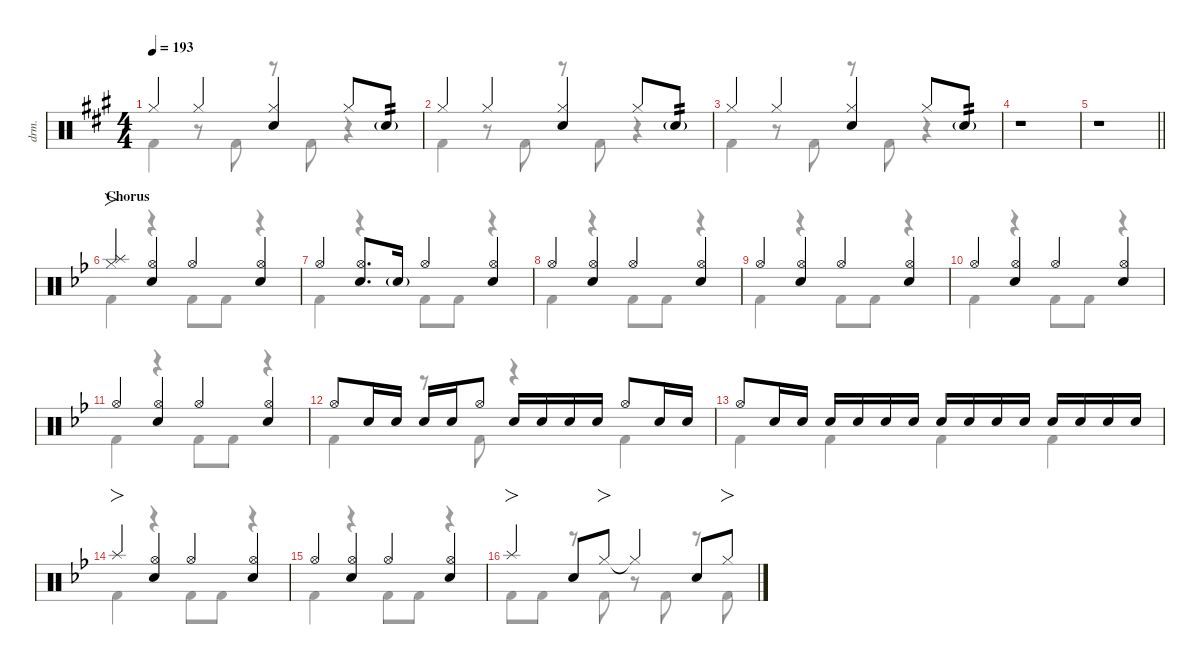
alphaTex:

\defaultSystemsLayout 4
\hideDynamics
\bracketExtendMode nobrackets
\otherSystemsTrackNameOrientation horizontal
\track ("伊地知虹夏" "drm.") {instrument percussion}
\staff {score}
\articulation defaults
\voice
\ts (4 4)
\tempo 193
\clef neutral
\ks a "Hi-Hat (closed)"{acc forcenatural}.4{dy mf beam Up} "Hi-Hat (closed)"{acc forcenatural}.4{beam Up}
("Hi-Hat (closed)"{acc forcenatural} "Snare (hit) 2"{acc forcenatural}).4{beam Up} "Hi-Hat (closed)"{acc forcenatural}.8{beam Up} "Snare (hit) 2"{g acc forcenatural}.8{tp 2 beam Up} |
"Hi-Hat (closed)"{acc forcenatural}.4{beam Up} "Hi-Hat (closed)"{acc forcenatural}.4{beam Up} ("Hi-Hat (closed)"{acc forcenatural} "Snare (hit) 2"{acc forcenatural}).4{beam Up} "Hi-Hat (closed)"{acc forcenatural}.8{beam Up} "Snare (hit) 2"{g acc forcenatural}.8{tp 2 beam Up} |
"Hi-Hat (closed)"{acc forcenatural}.4{beam Up} "Hi-Hat (closed)"{acc forcenatural}.4{beam Up} ("Hi-Hat (closed)"{acc forcenatural} "Snare (hit) 2"{acc forcenatural}).4{beam Up} "Hi-Hat (closed)"{acc forcenatural}.8{beam Up} "Snare (hit) 2"{g acc forcenatural}.8{tp 2 beam Up} |
r.1{beam Up} |
\barLineRight lightlight
r.1{beam Up} |
\section ("" "Chorus")
\ks bb
("Hi-Hat (closed)"{acc forcenatural} "Splash (hit)"{acc forcenatural}).4{fo beam Up} ("Hi-Hat (open)"{acc forcenatural} "Snare (hit) 2"{acc forcenatural}).4{beam Up} "Hi-Hat (open)"{acc forcenatural}.4{beam Up} ("Hi-Hat (open)"{acc forcenatural} "Snare (hit) 2"{acc forcenatural}).4{beam Up} |
"Hi-Hat (open)"{acc forcenatural}.4{beam Up} ("Hi-Hat (open)"{acc forcenatural} "Snare (hit) 2"{acc forcenatural}).8{d beam Up} "Snare (hit) 2"{g acc forcenatural}.16{beam Up} "Hi-Hat (open)"{acc forcenatural}.4{beam Up} ("Hi-Hat (open)"{acc forcenatural} "Snare (hit) 2"{acc forcenatural}).4{beam Up} |
"Hi-Hat (open)"{acc forcenatural}.4{beam Up} ("Hi-Hat (open)"{acc forcenatural} "Snare (hit) 2"{acc forcenatural}).4{beam Up} "Hi-Hat (open)"{acc forcenatural}.4{beam Up} ("Hi-Hat (open)"{acc forcenatural} "Snare (hit) 2"{acc forcenatural}).4{beam Up} |
"Hi-Hat (open)"{acc forcenatural}.4{beam Up} ("Hi-Hat (open)"{acc forcenatural} "Snare (hit) 2"{acc forcenatural}).4{beam Up} "Hi-Hat (open)"{acc forcenatural}.4{beam Up} ("Hi-Hat (open)"{acc forcenatural} "Snare (hit) 2"{acc forcenatural}).4{beam Up} |
"Hi-Hat (open)"{acc forcenatural}.4{beam Up} ("Hi-Hat (open)"{acc forcenatural} "Snare (hit) 2"{acc forcenatural}).4{beam Up} "Hi-Hat (open)"{acc forcenatural}.4{beam Up} ("Hi-Hat (open)"{acc forcenatural} "Snare (hit) 2"{acc forcenatural}).4{beam Up} |
"Hi-Hat (open)"{acc forcenatural}.4{beam Up} ("Hi-Hat (open)"{acc forcenatural} "Snare (hit) 2"{acc forcenatural}).4{beam Up} "Hi-Hat (open)"{acc forcenatural}.4{beam Up} ("Hi-Hat (open)"{acc forcenatural} "Snare (hit) 2"{acc forcenatural}).4{beam Up} |
"Hi-Hat (open)"{acc forcenatural}.8{beam Up} "Snare (hit) 2"{acc forcenatural}.16{beam Up} "Snare (hit) 2"{acc forcenatural}.16{beam Up} "Snare (hit) 2"{acc forcenatural}.16{beam Up} "Snare (hit) 2"{acc forcenatural}.16{beam Up} "Hi-Hat (open)"{acc forcenatural}.8{beam Up} "Snare (hit) 2"{acc forcenatural}.16{beam Up} "Snare (hit) 2"{acc forcenatural}.16{beam Up} "Snare (hit) 2"{acc forcenatural}.16{beam Up} "Snare (hit) 2"{acc forcenatural}.16{beam Up} "Hi-Hat (open)"{acc forcenatural}.8{beam Up} "Snare (hit) 2"{acc forcenatural}.16{beam Up} "Snare (hit) 2"{acc forcenatural}.16{beam Up} |
"Hi-Hat (open)"{acc forcenatural}.8{beam Up} "Snare (hit) 2"{acc forcenatural}.16{beam Up} "Snare (hit) 2"{acc forcenatural}.16{beam Up} "Snare (hit) 2"{acc forcenatural}.16{beam Up} "Snare (hit) 2"{acc forcenatural}.16{beam Up} "Snare (hit) 2"{acc forcenatural}.16{beam Up} "Snare (hit) 2"{acc forcenatural}.16{beam Up} "Snare (hit) 2"{acc forcenatural}.16{beam Up} "Snare (hit) 2"{acc forcenatural}.16{beam Up} "Snare (hit) 2"{acc forcenatural}.16{beam Up} "Snare (hit) 2"{acc forcenatural}.16{beam Up} "Snare (hit) 2"{acc forcenatural}.16{beam Up} "Snare (hit) 2"{acc forcenatural}.16{beam Up} "Snare (hit) 2"{acc forcenatural}.16{beam Up} "Snare (hit) 2"{acc forcenatural}.16{beam Up} |
"Splash (hit)"{acc forcenatural}.4{fo beam Up} ("Hi-Hat (open)"{acc forcenatural} "Snare (hit) 2"{acc forcenatural}).4{beam Up} "Hi-Hat (open)"{acc forcenatural}.4{beam Up} ("Hi-Hat (open)"{acc forcenatural} "Snare (hit) 2"{acc forcenatural}).4{beam Up} |
"Hi-Hat (open)"{acc forcenatural}.4{beam Up} ("Hi-Hat (open)"{acc forcenatural} "Snare (hit) 2"{acc forcenatural}).4{beam Up} "Hi-Hat (open)"{acc forcenatural}.4{beam Up} ("Hi-Hat (open)"{acc forcenatural} "Snare (hit) 2"{acc forcenatural}).4{beam Up} |
"Splash (hit)"{acc forcenatural}.4{fo beam Up} "Snare (hit) 2"{acc forcenatural}.8{beam Up} "Hi-Hat (closed)"{acc forcenatural}.8{fo beam Up} "Hi-Hat (closed)"{t acc forcenatural}.4{beam Up} "Snare (hit) 2"{acc forcenatural}.8{beam Up} "Hi-Hat (closed)"{acc forcenatural}.8{fo beam Up}
\voice
\clef neutral
\ottava regular
\simile none
\ks a "Kick (hit) 2"{acc forcenatural}.4{dy mf beam Down}
r.8{beam Down} "Kick (hit) 2"{acc forcenatural}.8{beam Down} r.8{beam Down} "Kick (hit) 2"{acc forcenatural}.8{beam Down} r.4{beam Down} |
"Kick (hit) 2"{acc forcenatural}.4{beam Down} r.8{beam Down} "Kick (hit) 2"{acc forcenatural}.8{beam Down} r.8{beam Down} "Kick (hit) 2"{acc forcenatural}.8{beam Down} r.4{beam Down} |
"Kick (hit) 2"{acc forcenatural}.4{beam Down} r.8{beam Down} "Kick (hit) 2"{acc forcenatural}.8{beam Down} r.8{beam Down} "Kick (hit) 2"{acc forcenatural}.8{beam Down} r.4{beam Down} |
r.1{beam Down} |
\barLineRight lightlight
r.1{beam Down} |
\ks bb "Kick (hit) 2"{acc forcenatural}.4{beam Down}
r.4{beam Down} "Kick (hit) 2"{acc forcenatural}.8{beam Down} "Kick (hit) 2"{acc forcenatural}.8{beam Down} r.4{beam Down} |
"Kick (hit) 2"{acc forcenatural}.4{beam Down} r.4{beam Down} "Kick (hit) 2"{acc forcenatural}.8{beam Down} "Kick (hit) 2"{acc forcenatural}.8{beam Down} r.4{beam Down} |
"Kick (hit) 2"{acc forcenatural}.4{beam Down} r.4{beam Down} "Kick (hit) 2"{acc forcenatural}.8{beam Down} "Kick (hit) 2"{acc forcenatural}.8{beam Down} r.4{beam Down} |
"Kick (hit) 2"{acc forcenatural}.4{beam Down} r.4{beam Down} "Kick (hit) 2"{acc forcenatural}.8{beam Down} "Kick (hit) 2"{acc forcenatural}.8{beam Down} r.4{beam Down} |
"Kick (hit) 2"{acc forcenatural}.4{beam Down} r.4{beam Down} "Kick (hit) 2"{acc forcenatural}.8{beam Down} "Kick (hit) 2"{acc forcenatural}.8{beam Down} r.4{beam Down} |
"Kick (hit) 2"{acc forcenatural}.4{beam Down} r.4{beam Down} "Kick (hit) 2"{acc forcenatural}.8{beam Down} "Kick (hit) 2"{acc forcenatural}.8{beam Down} r.4{beam Down} |
"Kick (hit) 2"{acc forcenatural}.4{beam Down} r.8{beam Down} "Kick (hit) 2"{acc forcenatural}.8{beam Down} r.4{beam Down} "Kick (hit) 2"{acc forcenatural}.4{beam Down} |
"Kick (hit) 2"{acc forcenatural}.4{beam Down} "Kick (hit) 2"{acc forcenatural}.4{beam Down} "Kick (hit) 2"{acc forcenatural}.4{beam Down} "Kick (hit) 2"{acc forcenatural}.4{beam Down} |
"Kick (hit) 2"{acc forcenatural}.4{beam Down} r.4{beam Down} "Kick (hit) 2"{acc forcenatural}.8{beam Down} "Kick (hit) 2"{acc forcenatural}.8{beam Down} r.4{beam Down} |
"Kick (hit) 2"{acc forcenatural}.4{beam Down} r.4{beam Down} "Kick (hit) 2"{acc forcenatural}.8{beam Down} "Kick (hit) 2"{acc forcenatural}.8{beam Down} r.4{beam Down} |
"Kick (hit) 2"{acc forcenatural}.8{beam Down} "Kick (hit) 2"{acc forcenatural}.8{beam Down} r.8{beam Down} "Kick (hit) 2"{acc forcenatural}.8{beam Down} r.8{beam Down} "Kick (hit) 2"{acc forcenatural}.8{beam Down} r.8{beam Down} "Kick (hit) 2"{acc forcenatural}.8{beam Down}
